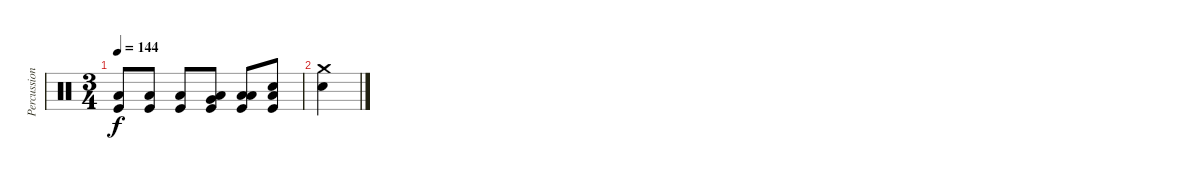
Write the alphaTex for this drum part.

\track ("Percussion" "Percussion") {instrument percussion}
\staff {score}
\articulation defaults
\ts (3 4)
\tempo 144
\clef neutral
\ks c
("Low Floor Tom (hit)" "Kick (hit)").8{dy f} ("Low Floor Tom (hit)" "Kick (hit)").8 ("Low Floor Tom (hit)" "Kick (hit)").8 ("Low Floor Tom (hit)" "Kick (hit)" "Very Low Tom (hit)").8 ("Low Floor Tom (hit)" "Kick (hit)" "Low Floor Tom (hit)").8 ("Low Floor Tom (hit)" "Kick (hit)" "Snare (hit) 2").8 |
("Crash medium (hit)" "Snare (hit) 2").4
